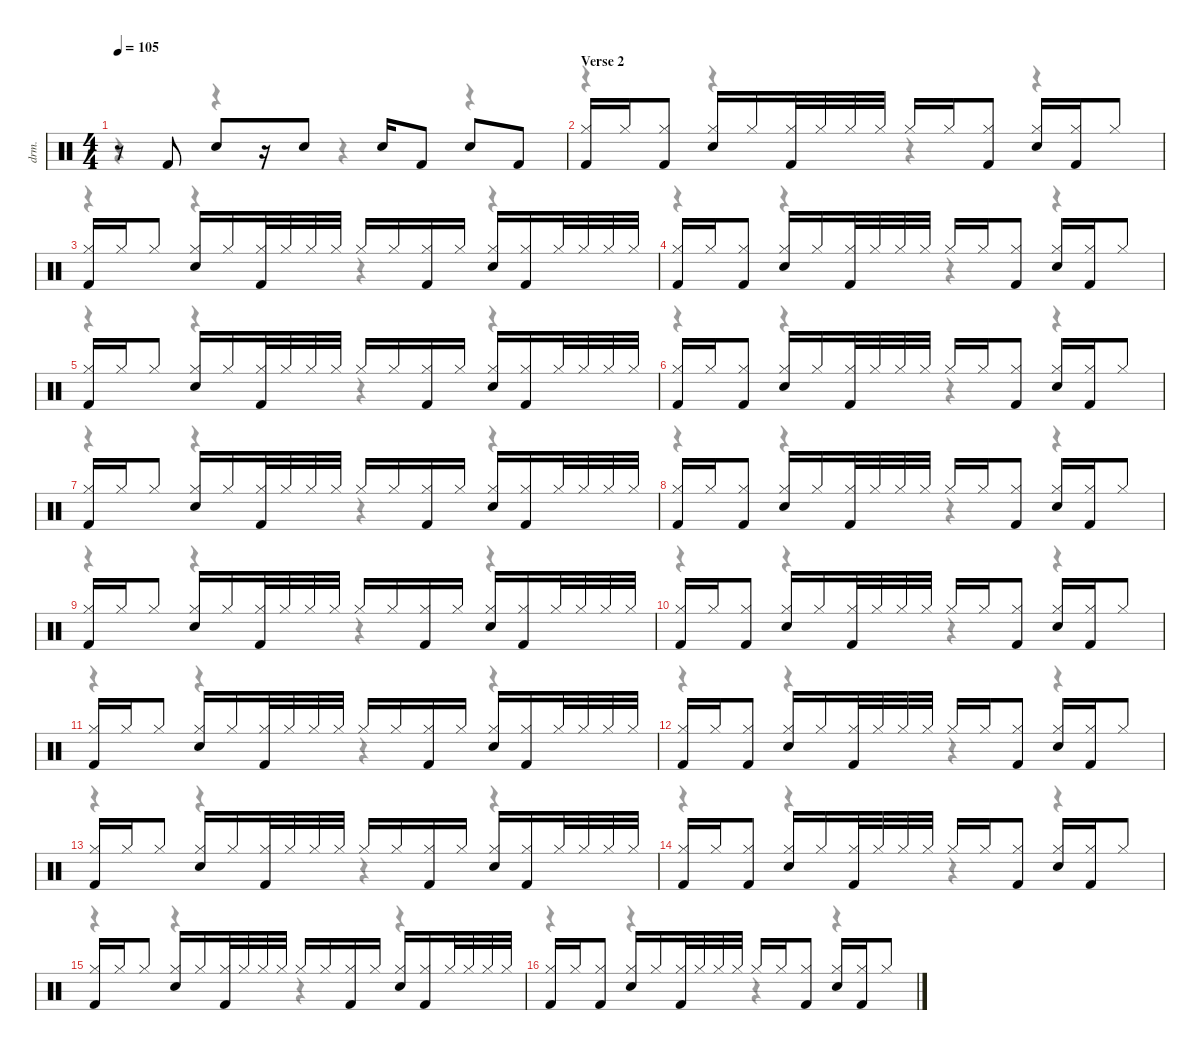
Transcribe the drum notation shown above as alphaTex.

\defaultSystemsLayout 4
\hideDynamics
\bracketExtendMode nobrackets
\otherSystemsTrackNameOrientation horizontal
\track ("Drums" "drm.") {instrument percussion}
\staff {score}
\articulation defaults
\voice
\ts (4 4)
\tempo 105
\clef neutral
\ks c
r.8{dy fff} "Kick (hit) 2".8 "Snare (hit) 2".8 r.16 "Snare (hit) 2".8 "Snare (hit) 2".16 "Kick (hit) 2".8 "Snare (hit) 2".8 "Kick (hit) 2".8 |
\section ("" "Verse 2")
("Hi-Hat (closed)" "Kick (hit) 2").16{dy mp} "Hi-Hat (closed)".16 ("Hi-Hat (closed)" "Kick (hit) 2").8 ("Hi-Hat (closed)" "Snare (hit) 2").16 "Hi-Hat (closed)".16 ("Hi-Hat (closed)" "Kick (hit) 2").32 "Hi-Hat (closed)".32 "Hi-Hat (closed)".32 "Hi-Hat (closed)".32 "Hi-Hat (closed)".16 "Hi-Hat (closed)".16 ("Hi-Hat (closed)" "Kick (hit) 2").8 ("Hi-Hat (closed)" "Snare (hit) 2").16 ("Hi-Hat (closed)" "Kick (hit) 2").16 "Hi-Hat (closed)".8 |
("Hi-Hat (closed)" "Kick (hit) 2").16 "Hi-Hat (closed)".16 "Hi-Hat (closed)".8 ("Hi-Hat (closed)" "Snare (hit) 2").16 "Hi-Hat (closed)".16 ("Hi-Hat (closed)" "Kick (hit) 2").32 "Hi-Hat (closed)".32 "Hi-Hat (closed)".32 "Hi-Hat (closed)".32 "Hi-Hat (closed)".16 "Hi-Hat (closed)".16 ("Hi-Hat (closed)" "Kick (hit) 2").16 "Hi-Hat (closed)".16 ("Hi-Hat (closed)" "Snare (hit) 2").16 ("Hi-Hat (closed)" "Kick (hit) 2").16 "Hi-Hat (closed)".32 "Hi-Hat (closed)".32 "Hi-Hat (closed)".32 "Hi-Hat (closed)".32 |
("Hi-Hat (closed)" "Kick (hit) 2").16 "Hi-Hat (closed)".16 ("Hi-Hat (closed)" "Kick (hit) 2").8 ("Hi-Hat (closed)" "Snare (hit) 2").16 "Hi-Hat (closed)".16 ("Hi-Hat (closed)" "Kick (hit) 2").32 "Hi-Hat (closed)".32 "Hi-Hat (closed)".32 "Hi-Hat (closed)".32 "Hi-Hat (closed)".16 "Hi-Hat (closed)".16 ("Hi-Hat (closed)" "Kick (hit) 2").8 ("Hi-Hat (closed)" "Snare (hit) 2").16 ("Hi-Hat (closed)" "Kick (hit) 2").16 "Hi-Hat (closed)".8 |
("Hi-Hat (closed)" "Kick (hit) 2").16 "Hi-Hat (closed)".16 "Hi-Hat (closed)".8 ("Hi-Hat (closed)" "Snare (hit) 2").16 "Hi-Hat (closed)".16 ("Hi-Hat (closed)" "Kick (hit) 2").32 "Hi-Hat (closed)".32 "Hi-Hat (closed)".32 "Hi-Hat (closed)".32 "Hi-Hat (closed)".16 "Hi-Hat (closed)".16 ("Hi-Hat (closed)" "Kick (hit) 2").16 "Hi-Hat (closed)".16 ("Hi-Hat (closed)" "Snare (hit) 2").16 ("Hi-Hat (closed)" "Kick (hit) 2").16 "Hi-Hat (closed)".32 "Hi-Hat (closed)".32 "Hi-Hat (closed)".32 "Hi-Hat (closed)".32 |
("Hi-Hat (closed)" "Kick (hit) 2").16 "Hi-Hat (closed)".16 ("Hi-Hat (closed)" "Kick (hit) 2").8 ("Hi-Hat (closed)" "Snare (hit) 2").16 "Hi-Hat (closed)".16 ("Hi-Hat (closed)" "Kick (hit) 2").32 "Hi-Hat (closed)".32 "Hi-Hat (closed)".32 "Hi-Hat (closed)".32 "Hi-Hat (closed)".16 "Hi-Hat (closed)".16 ("Hi-Hat (closed)" "Kick (hit) 2").8 ("Hi-Hat (closed)" "Snare (hit) 2").16 ("Hi-Hat (closed)" "Kick (hit) 2").16 "Hi-Hat (closed)".8 |
("Hi-Hat (closed)" "Kick (hit) 2").16 "Hi-Hat (closed)".16 "Hi-Hat (closed)".8 ("Hi-Hat (closed)" "Snare (hit) 2").16 "Hi-Hat (closed)".16 ("Hi-Hat (closed)" "Kick (hit) 2").32 "Hi-Hat (closed)".32 "Hi-Hat (closed)".32 "Hi-Hat (closed)".32 "Hi-Hat (closed)".16 "Hi-Hat (closed)".16 ("Hi-Hat (closed)" "Kick (hit) 2").16 "Hi-Hat (closed)".16 ("Hi-Hat (closed)" "Snare (hit) 2").16 ("Hi-Hat (closed)" "Kick (hit) 2").16 "Hi-Hat (closed)".32 "Hi-Hat (closed)".32 "Hi-Hat (closed)".32 "Hi-Hat (closed)".32 |
("Hi-Hat (closed)" "Kick (hit) 2").16 "Hi-Hat (closed)".16 ("Hi-Hat (closed)" "Kick (hit) 2").8 ("Hi-Hat (closed)" "Snare (hit) 2").16 "Hi-Hat (closed)".16 ("Hi-Hat (closed)" "Kick (hit) 2").32 "Hi-Hat (closed)".32 "Hi-Hat (closed)".32 "Hi-Hat (closed)".32 "Hi-Hat (closed)".16 "Hi-Hat (closed)".16 ("Hi-Hat (closed)" "Kick (hit) 2").8 ("Hi-Hat (closed)" "Snare (hit) 2").16 ("Hi-Hat (closed)" "Kick (hit) 2").16 "Hi-Hat (closed)".8 |
("Hi-Hat (closed)" "Kick (hit) 2").16 "Hi-Hat (closed)".16 "Hi-Hat (closed)".8 ("Hi-Hat (closed)" "Snare (hit) 2").16 "Hi-Hat (closed)".16 ("Hi-Hat (closed)" "Kick (hit) 2").32 "Hi-Hat (closed)".32 "Hi-Hat (closed)".32 "Hi-Hat (closed)".32 "Hi-Hat (closed)".16 "Hi-Hat (closed)".16 ("Hi-Hat (closed)" "Kick (hit) 2").16 "Hi-Hat (closed)".16 ("Hi-Hat (closed)" "Snare (hit) 2").16 ("Hi-Hat (closed)" "Kick (hit) 2").16 "Hi-Hat (closed)".32 "Hi-Hat (closed)".32 "Hi-Hat (closed)".32 "Hi-Hat (closed)".32 |
("Hi-Hat (closed)" "Kick (hit) 2").16 "Hi-Hat (closed)".16 ("Hi-Hat (closed)" "Kick (hit) 2").8 ("Hi-Hat (closed)" "Snare (hit) 2").16 "Hi-Hat (closed)".16 ("Hi-Hat (closed)" "Kick (hit) 2").32 "Hi-Hat (closed)".32 "Hi-Hat (closed)".32 "Hi-Hat (closed)".32 "Hi-Hat (closed)".16 "Hi-Hat (closed)".16 ("Hi-Hat (closed)" "Kick (hit) 2").8 ("Hi-Hat (closed)" "Snare (hit) 2").16 ("Hi-Hat (closed)" "Kick (hit) 2").16 "Hi-Hat (closed)".8 |
("Hi-Hat (closed)" "Kick (hit) 2").16 "Hi-Hat (closed)".16 "Hi-Hat (closed)".8 ("Hi-Hat (closed)" "Snare (hit) 2").16 "Hi-Hat (closed)".16 ("Hi-Hat (closed)" "Kick (hit) 2").32 "Hi-Hat (closed)".32 "Hi-Hat (closed)".32 "Hi-Hat (closed)".32 "Hi-Hat (closed)".16 "Hi-Hat (closed)".16 ("Hi-Hat (closed)" "Kick (hit) 2").16 "Hi-Hat (closed)".16 ("Hi-Hat (closed)" "Snare (hit) 2").16 ("Hi-Hat (closed)" "Kick (hit) 2").16 "Hi-Hat (closed)".32 "Hi-Hat (closed)".32 "Hi-Hat (closed)".32 "Hi-Hat (closed)".32 |
("Hi-Hat (closed)" "Kick (hit) 2").16 "Hi-Hat (closed)".16 ("Hi-Hat (closed)" "Kick (hit) 2").8 ("Hi-Hat (closed)" "Snare (hit) 2").16 "Hi-Hat (closed)".16 ("Hi-Hat (closed)" "Kick (hit) 2").32 "Hi-Hat (closed)".32 "Hi-Hat (closed)".32 "Hi-Hat (closed)".32 "Hi-Hat (closed)".16 "Hi-Hat (closed)".16 ("Hi-Hat (closed)" "Kick (hit) 2").8 ("Hi-Hat (closed)" "Snare (hit) 2").16 ("Hi-Hat (closed)" "Kick (hit) 2").16 "Hi-Hat (closed)".8 |
("Hi-Hat (closed)" "Kick (hit) 2").16 "Hi-Hat (closed)".16 "Hi-Hat (closed)".8 ("Hi-Hat (closed)" "Snare (hit) 2").16 "Hi-Hat (closed)".16 ("Hi-Hat (closed)" "Kick (hit) 2").32 "Hi-Hat (closed)".32 "Hi-Hat (closed)".32 "Hi-Hat (closed)".32 "Hi-Hat (closed)".16 "Hi-Hat (closed)".16 ("Hi-Hat (closed)" "Kick (hit) 2").16 "Hi-Hat (closed)".16 ("Hi-Hat (closed)" "Snare (hit) 2").16 ("Hi-Hat (closed)" "Kick (hit) 2").16 "Hi-Hat (closed)".32 "Hi-Hat (closed)".32 "Hi-Hat (closed)".32 "Hi-Hat (closed)".32 |
("Hi-Hat (closed)" "Kick (hit) 2").16 "Hi-Hat (closed)".16 ("Hi-Hat (closed)" "Kick (hit) 2").8 ("Hi-Hat (closed)" "Snare (hit) 2").16 "Hi-Hat (closed)".16 ("Hi-Hat (closed)" "Kick (hit) 2").32 "Hi-Hat (closed)".32 "Hi-Hat (closed)".32 "Hi-Hat (closed)".32 "Hi-Hat (closed)".16 "Hi-Hat (closed)".16 ("Hi-Hat (closed)" "Kick (hit) 2").8 ("Hi-Hat (closed)" "Snare (hit) 2").16 ("Hi-Hat (closed)" "Kick (hit) 2").16 "Hi-Hat (closed)".8 |
("Hi-Hat (closed)" "Kick (hit) 2").16 "Hi-Hat (closed)".16 "Hi-Hat (closed)".8 ("Hi-Hat (closed)" "Snare (hit) 2").16 "Hi-Hat (closed)".16 ("Hi-Hat (closed)" "Kick (hit) 2").32 "Hi-Hat (closed)".32 "Hi-Hat (closed)".32 "Hi-Hat (closed)".32 "Hi-Hat (closed)".16 "Hi-Hat (closed)".16 ("Hi-Hat (closed)" "Kick (hit) 2").16 "Hi-Hat (closed)".16 ("Hi-Hat (closed)" "Snare (hit) 2").16 ("Hi-Hat (closed)" "Kick (hit) 2").16 "Hi-Hat (closed)".32 "Hi-Hat (closed)".32 "Hi-Hat (closed)".32 "Hi-Hat (closed)".32 |
("Hi-Hat (closed)" "Kick (hit) 2").16 "Hi-Hat (closed)".16 ("Hi-Hat (closed)" "Kick (hit) 2").8 ("Hi-Hat (closed)" "Snare (hit) 2").16 "Hi-Hat (closed)".16 ("Hi-Hat (closed)" "Kick (hit) 2").32 "Hi-Hat (closed)".32 "Hi-Hat (closed)".32 "Hi-Hat (closed)".32 "Hi-Hat (closed)".16 "Hi-Hat (closed)".16 ("Hi-Hat (closed)" "Kick (hit) 2").8 ("Hi-Hat (closed)" "Snare (hit) 2").16 ("Hi-Hat (closed)" "Kick (hit) 2").16 "Hi-Hat (closed)".8
\voice
\clef neutral
\ottava regular
\simile none
\ks c
r.4{dy mf} r.4 r.4 r.4 |
r.4 r.4 r.4 r.4 |
r.4 r.4 r.4 r.4 |
r.4 r.4 r.4 r.4 |
r.4 r.4 r.4 r.4 |
r.4 r.4 r.4 r.4 |
r.4 r.4 r.4 r.4 |
r.4 r.4 r.4 r.4 |
r.4 r.4 r.4 r.4 |
r.4 r.4 r.4 r.4 |
r.4 r.4 r.4 r.4 |
r.4 r.4 r.4 r.4 |
r.4 r.4 r.4 r.4 |
r.4 r.4 r.4 r.4 |
r.4 r.4 r.4 r.4 |
r.4 r.4 r.4 r.4
